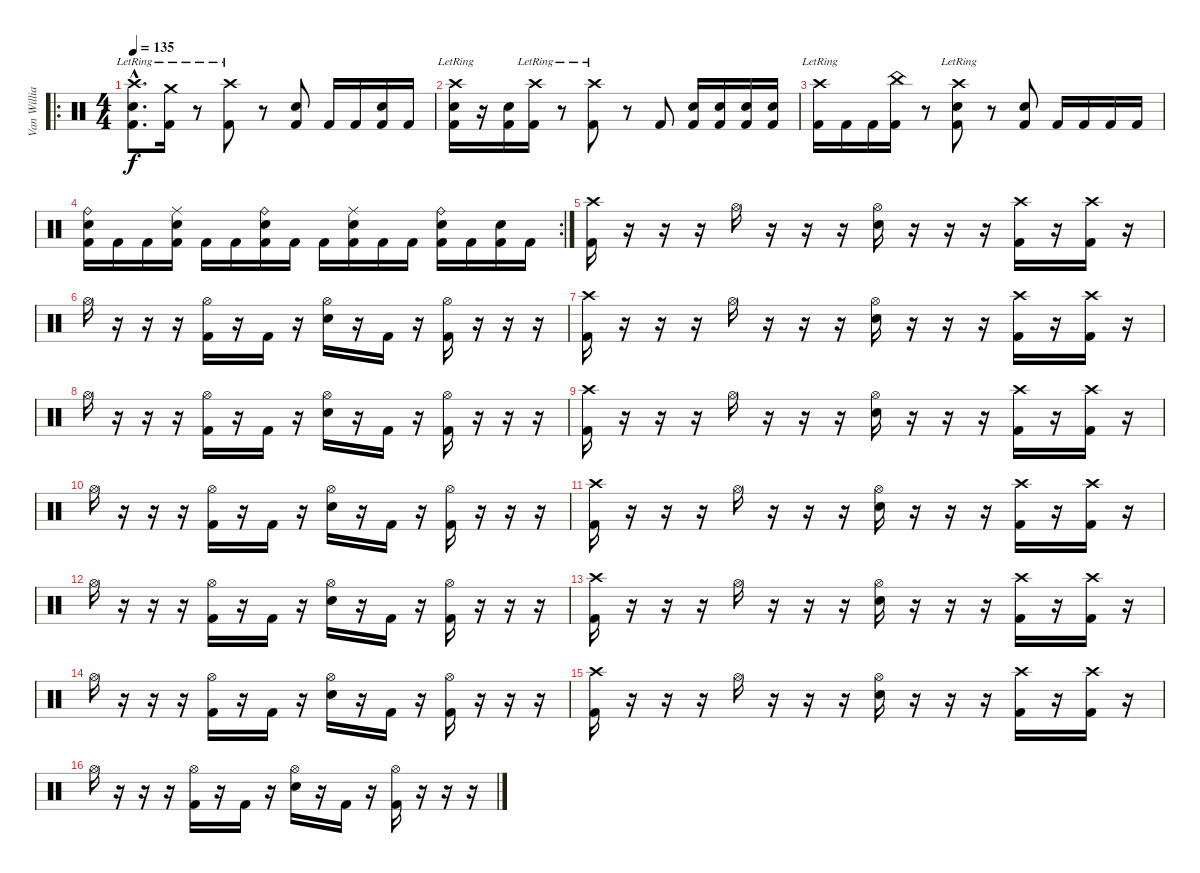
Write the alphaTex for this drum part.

\track ("Van Williams" "Van Willia") {instrument percussion}
\staff {score}
\articulation defaults
\ro
\ts (4 4)
\tempo 135
\clef neutral
\ks c
("Crash high (hit)"{lr} "Kick (hit) 2"{hac} "Electric Snare (hit)"{hac}).8{d dy f} ("Crash medium (hit)"{lr} "Kick (hit) 2").16 r.8 ("Crash high (hit)"{lr} "Kick (hit) 2").8 r.8 ("Kick (hit) 2" "Electric Snare (hit)").8 "Kick (hit) 2".16 "Kick (hit) 2".16 ("Kick (hit) 2" "Electric Snare (hit)").16 "Kick (hit) 2".16 |
("Crash high (hit)"{lr} "Kick (hit) 2" "Electric Snare (hit)").16 r.16 ("Kick (hit) 2" "Electric Snare (hit)").16 ("Crash high (hit)"{lr} "Kick (hit) 2").16 r.8 ("Crash high (hit)"{lr} "Kick (hit) 2").8 r.8 "Kick (hit) 2".8 ("Kick (hit) 2" "Electric Snare (hit)").16 ("Kick (hit) 2" "Electric Snare (hit)").16 ("Kick (hit) 2" "Electric Snare (hit)").16 ("Kick (hit) 2" "Electric Snare (hit)").16 |
("Crash high (hit)"{lr} "Kick (hit) 2").16 "Kick (hit) 2".16 "Kick (hit) 2".16 ("China (hit)" "Kick (hit) 2").16 r.8 ("Crash high (hit)"{lr} "Kick (hit) 2" "Electric Snare (hit)").8 r.8 ("Kick (hit) 2" "Electric Snare (hit)").8 "Kick (hit) 2".16 "Kick (hit) 2".16 "Kick (hit) 2".16 "Kick (hit) 2".16 |
\rc 2
("Ride (bell)" "Kick (hit) 2" "Electric Snare (hit)").16 "Kick (hit) 2".16 "Kick (hit) 2".16 ("Ride (middle)" "Kick (hit) 2" "Electric Snare (hit)").16 "Kick (hit) 2".16 "Kick (hit) 2".16 ("Ride (bell)" "Kick (hit) 2" "Electric Snare (hit)").16 "Kick (hit) 2".16 "Kick (hit) 2".16 ("Ride (middle)" "Kick (hit) 2" "Electric Snare (hit)").16 "Kick (hit) 2".16 "Kick (hit) 2".16 ("Ride (bell)" "Kick (hit) 2" "Electric Snare (hit)").16 "Kick (hit) 2".16 ("Kick (hit) 2" "Electric Snare (hit)").16 "Kick (hit) 2".16 |
("Crash high (hit)" "Kick (hit) 2").16 r.16 r.16 r.16 "Hi-Hat (open)".16 r.16 r.16 r.16 ("Hi-Hat (open)" "Electric Snare (hit)").16 r.16 r.16 r.16 ("Crash high (hit)" "Kick (hit) 2").16 r.16 ("Crash high (hit)" "Kick (hit) 2").16 r.16 |
"Hi-Hat (open)".16 r.16 r.16 r.16 ("Hi-Hat (open)" "Kick (hit) 2").16 r.16 "Kick (hit) 2".16 r.16 ("Hi-Hat (open)" "Electric Snare (hit)").16 r.16 "Kick (hit) 2".16 r.16 ("Hi-Hat (open)" "Kick (hit) 2").16 r.16 r.16 r.16 |
("Crash high (hit)" "Kick (hit) 2").16 r.16 r.16 r.16 "Hi-Hat (open)".16 r.16 r.16 r.16 ("Hi-Hat (open)" "Electric Snare (hit)").16 r.16 r.16 r.16 ("Crash high (hit)" "Kick (hit) 2").16 r.16 ("Crash high (hit)" "Kick (hit) 2").16 r.16 |
"Hi-Hat (open)".16 r.16 r.16 r.16 ("Hi-Hat (open)" "Kick (hit) 2").16 r.16 "Kick (hit) 2".16 r.16 ("Hi-Hat (open)" "Electric Snare (hit)").16 r.16 "Kick (hit) 2".16 r.16 ("Hi-Hat (open)" "Kick (hit) 2").16 r.16 r.16 r.16 |
("Crash high (hit)" "Kick (hit) 2").16 r.16 r.16 r.16 "Hi-Hat (open)".16 r.16 r.16 r.16 ("Hi-Hat (open)" "Electric Snare (hit)").16 r.16 r.16 r.16 ("Crash high (hit)" "Kick (hit) 2").16 r.16 ("Crash high (hit)" "Kick (hit) 2").16 r.16 |
"Hi-Hat (open)".16 r.16 r.16 r.16 ("Hi-Hat (open)" "Kick (hit) 2").16 r.16 "Kick (hit) 2".16 r.16 ("Hi-Hat (open)" "Electric Snare (hit)").16 r.16 "Kick (hit) 2".16 r.16 ("Hi-Hat (open)" "Kick (hit) 2").16 r.16 r.16 r.16 |
("Crash high (hit)" "Kick (hit) 2").16 r.16 r.16 r.16 "Hi-Hat (open)".16 r.16 r.16 r.16 ("Hi-Hat (open)" "Electric Snare (hit)").16 r.16 r.16 r.16 ("Crash high (hit)" "Kick (hit) 2").16 r.16 ("Crash high (hit)" "Kick (hit) 2").16 r.16 |
"Hi-Hat (open)".16 r.16 r.16 r.16 ("Hi-Hat (open)" "Kick (hit) 2").16 r.16 "Kick (hit) 2".16 r.16 ("Hi-Hat (open)" "Electric Snare (hit)").16 r.16 "Kick (hit) 2".16 r.16 ("Hi-Hat (open)" "Kick (hit) 2").16 r.16 r.16 r.16 |
("Crash high (hit)" "Kick (hit) 2").16 r.16 r.16 r.16 "Hi-Hat (open)".16 r.16 r.16 r.16 ("Hi-Hat (open)" "Electric Snare (hit)").16 r.16 r.16 r.16 ("Crash high (hit)" "Kick (hit) 2").16 r.16 ("Crash high (hit)" "Kick (hit) 2").16 r.16 |
"Hi-Hat (open)".16 r.16 r.16 r.16 ("Hi-Hat (open)" "Kick (hit) 2").16 r.16 "Kick (hit) 2".16 r.16 ("Hi-Hat (open)" "Electric Snare (hit)").16 r.16 "Kick (hit) 2".16 r.16 ("Hi-Hat (open)" "Kick (hit) 2").16 r.16 r.16 r.16 |
("Crash high (hit)" "Kick (hit) 2").16 r.16 r.16 r.16 "Hi-Hat (open)".16 r.16 r.16 r.16 ("Hi-Hat (open)" "Electric Snare (hit)").16 r.16 r.16 r.16 ("Crash high (hit)" "Kick (hit) 2").16 r.16 ("Crash high (hit)" "Kick (hit) 2").16 r.16 |
"Hi-Hat (open)".16 r.16 r.16 r.16 ("Hi-Hat (open)" "Kick (hit) 2").16 r.16 "Kick (hit) 2".16 r.16 ("Hi-Hat (open)" "Electric Snare (hit)").16 r.16 "Kick (hit) 2".16 r.16 ("Hi-Hat (open)" "Kick (hit) 2").16 r.16 r.16 r.16
